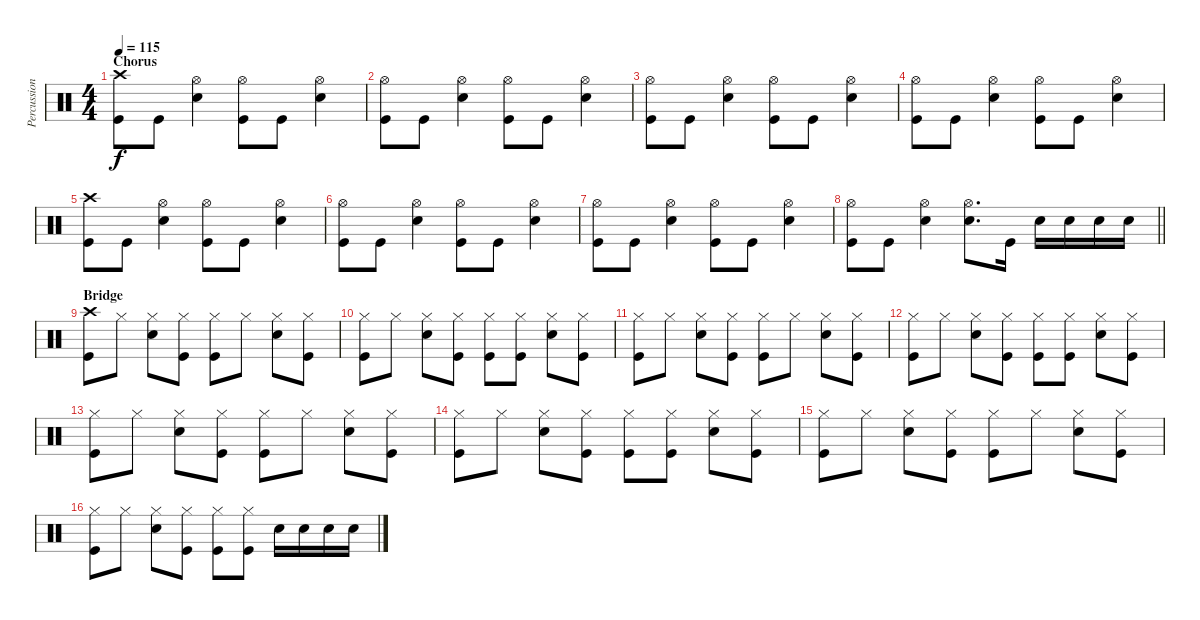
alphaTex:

\track ("Percussion" "Percussion") {instrument percussion}
\staff {score}
\articulation defaults
\ts (4 4)
\section ("" "Chorus")
\tempo 115
\clef neutral
\ks c
("Crash high (hit)" "Kick (hit)").8{dy f} "Kick (hit)".8 ("Hi-Hat (open)" "Electric Snare (hit)").4 ("Hi-Hat (open)" "Kick (hit)").8 "Kick (hit)".8 ("Hi-Hat (open)" "Electric Snare (hit)").4 |
("Hi-Hat (open)" "Kick (hit)").8 "Kick (hit)".8 ("Hi-Hat (open)" "Electric Snare (hit)").4 ("Hi-Hat (open)" "Kick (hit)").8 "Kick (hit)".8 ("Hi-Hat (open)" "Electric Snare (hit)").4 |
("Hi-Hat (open)" "Kick (hit)").8 "Kick (hit)".8 ("Hi-Hat (open)" "Electric Snare (hit)").4 ("Hi-Hat (open)" "Kick (hit)").8 "Kick (hit)".8 ("Hi-Hat (open)" "Electric Snare (hit)").4 |
("Hi-Hat (open)" "Kick (hit)").8 "Kick (hit)".8 ("Hi-Hat (open)" "Electric Snare (hit)").4 ("Hi-Hat (open)" "Kick (hit)").8 "Kick (hit)".8 ("Hi-Hat (open)" "Electric Snare (hit)").4 |
("Crash high (hit)" "Kick (hit)").8 "Kick (hit)".8 ("Hi-Hat (open)" "Electric Snare (hit)").4 ("Hi-Hat (open)" "Kick (hit)").8 "Kick (hit)".8 ("Hi-Hat (open)" "Electric Snare (hit)").4 |
("Hi-Hat (open)" "Kick (hit)").8 "Kick (hit)".8 ("Hi-Hat (open)" "Electric Snare (hit)").4 ("Hi-Hat (open)" "Kick (hit)").8 "Kick (hit)".8 ("Hi-Hat (open)" "Electric Snare (hit)").4 |
("Hi-Hat (open)" "Kick (hit)").8 "Kick (hit)".8 ("Hi-Hat (open)" "Electric Snare (hit)").4 ("Hi-Hat (open)" "Kick (hit)").8 "Kick (hit)".8 ("Hi-Hat (open)" "Electric Snare (hit)").4 |
\barLineRight lightlight
("Hi-Hat (open)" "Kick (hit)").8 "Kick (hit)".8 ("Hi-Hat (open)" "Electric Snare (hit)").4 ("Hi-Hat (open)" "Electric Snare (hit)").8{d} "Kick (hit)".16 "Electric Snare (hit)".16 "Electric Snare (hit)".16 "Electric Snare (hit)".16 "Electric Snare (hit)".16 |
\section ("" "Bridge")
("Crash high (hit)" "Kick (hit)").8 "Hi-Hat (closed)".8 ("Hi-Hat (closed)" "Electric Snare (hit)").8 ("Hi-Hat (closed)" "Kick (hit)").8 ("Hi-Hat (closed)" "Kick (hit)").8 "Hi-Hat (closed)".8 ("Hi-Hat (closed)" "Electric Snare (hit)").8 ("Hi-Hat (closed)" "Kick (hit)").8 |
("Hi-Hat (closed)" "Kick (hit)").8 "Hi-Hat (closed)".8 ("Hi-Hat (closed)" "Electric Snare (hit)").8 ("Hi-Hat (closed)" "Kick (hit)").8 ("Hi-Hat (closed)" "Kick (hit)").8 ("Hi-Hat (closed)" "Kick (hit)").8 ("Hi-Hat (closed)" "Electric Snare (hit)").8 ("Hi-Hat (closed)" "Kick (hit)").8 |
("Hi-Hat (closed)" "Kick (hit)").8 "Hi-Hat (closed)".8 ("Hi-Hat (closed)" "Electric Snare (hit)").8 ("Hi-Hat (closed)" "Kick (hit)").8 ("Hi-Hat (closed)" "Kick (hit)").8 "Hi-Hat (closed)".8 ("Hi-Hat (closed)" "Electric Snare (hit)").8 ("Hi-Hat (closed)" "Kick (hit)").8 |
("Hi-Hat (closed)" "Kick (hit)").8 "Hi-Hat (closed)".8 ("Hi-Hat (closed)" "Electric Snare (hit)").8 ("Hi-Hat (closed)" "Kick (hit)").8 ("Hi-Hat (closed)" "Kick (hit)").8 ("Hi-Hat (closed)" "Kick (hit)").8 ("Hi-Hat (closed)" "Electric Snare (hit)").8 ("Hi-Hat (closed)" "Kick (hit)").8 |
("Hi-Hat (closed)" "Kick (hit)").8 "Hi-Hat (closed)".8 ("Hi-Hat (closed)" "Electric Snare (hit)").8 ("Hi-Hat (closed)" "Kick (hit)").8 ("Hi-Hat (closed)" "Kick (hit)").8 "Hi-Hat (closed)".8 ("Hi-Hat (closed)" "Electric Snare (hit)").8 ("Hi-Hat (closed)" "Kick (hit)").8 |
("Hi-Hat (closed)" "Kick (hit)").8 "Hi-Hat (closed)".8 ("Hi-Hat (closed)" "Electric Snare (hit)").8 ("Hi-Hat (closed)" "Kick (hit)").8 ("Hi-Hat (closed)" "Kick (hit)").8 ("Hi-Hat (closed)" "Kick (hit)").8 ("Hi-Hat (closed)" "Electric Snare (hit)").8 ("Hi-Hat (closed)" "Kick (hit)").8 |
("Hi-Hat (closed)" "Kick (hit)").8 "Hi-Hat (closed)".8 ("Hi-Hat (closed)" "Electric Snare (hit)").8 ("Hi-Hat (closed)" "Kick (hit)").8 ("Hi-Hat (closed)" "Kick (hit)").8 "Hi-Hat (closed)".8 ("Hi-Hat (closed)" "Electric Snare (hit)").8 ("Hi-Hat (closed)" "Kick (hit)").8 |
("Hi-Hat (closed)" "Kick (hit)").8 "Hi-Hat (closed)".8 ("Hi-Hat (closed)" "Electric Snare (hit)").8 ("Hi-Hat (closed)" "Kick (hit)").8 ("Hi-Hat (closed)" "Kick (hit)").8 ("Hi-Hat (closed)" "Kick (hit)").8 "Electric Snare (hit)".16 "Electric Snare (hit)".16 "Electric Snare (hit)".16 "Electric Snare (hit)".16
